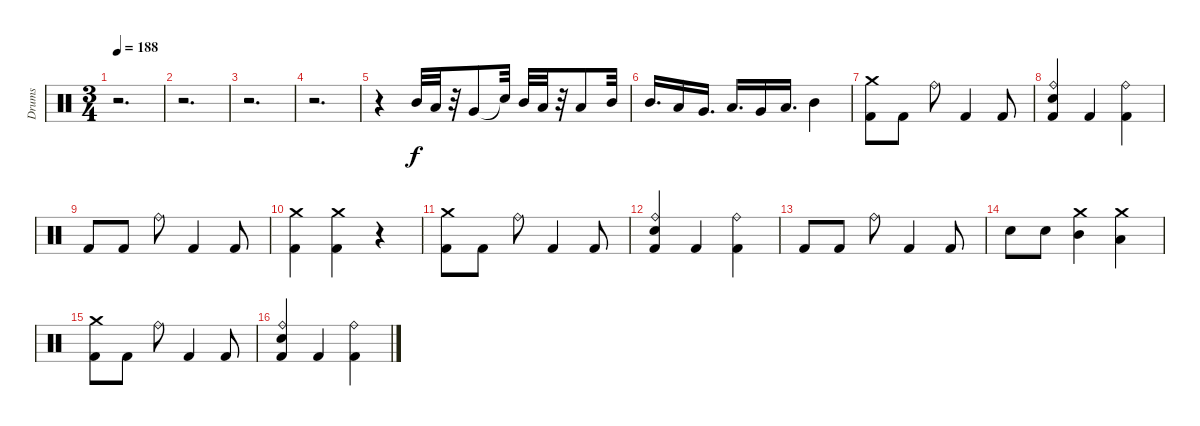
\track ("Drums" "Drums") {instrument percussion}
\staff {score}
\articulation defaults
\ts (3 4)
\tempo 188
\clef neutral
\ks c
r.2{d dy f} |
r.2{d} |
r.2{d} |
r.2{d} |
r.4 "Mid Tom (hit)".32 "Low Tom (hit)".32 r.32 "Very Low Tom (hit)".8 "Snare (hit)"{t}.32 "Mid Tom (hit)".32 "Low Tom (hit)".32 r.32 "Low Floor Tom (hit)".8 "Mid Tom (hit)".32 |
"Mid Tom (hit)".16{d} "Low Tom (hit)".16 "Very Low Tom (hit)".16{d} "Low Floor Tom (hit)".16{d} "Very Low Tom (hit)".16 "Low Tom (hit)".16{d} "Mid Tom (hit)".4 |
("Crash medium (hit)" "Kick (hit) 2").8 "Kick (hit) 2".8 "Ride (bell)".8 "Kick (hit) 2".4 "Kick (hit) 2".8 |
("Electric Snare (hit)" "Ride (bell)" "Kick (hit) 2").4 "Kick (hit) 2".4 ("Ride (bell)" "Kick (hit) 2").4 |
"Kick (hit) 2".8 "Kick (hit) 2".8 "Ride (bell)".8 "Kick (hit) 2".4 "Kick (hit) 2".8 |
("Crash medium (hit)" "Kick (hit) 2").4 ("Crash medium (hit)" "Kick (hit) 2").4 r.4 |
("Crash medium (hit)" "Kick (hit) 2").8 "Kick (hit) 2".8 "Ride (bell)".8 "Kick (hit) 2".4 "Kick (hit) 2".8 |
("Electric Snare (hit)" "Ride (bell)" "Kick (hit) 2").4 "Kick (hit) 2".4 ("Ride (bell)" "Kick (hit) 2").4 |
"Kick (hit) 2".8 "Kick (hit) 2".8 "Ride (bell)".8 "Kick (hit) 2".4 "Kick (hit) 2".8 |
"Electric Snare (hit)".8 "Electric Snare (hit)".8 ("Crash medium (hit)" "Mid Tom (hit)").4 ("Crash medium (hit)" "Low Tom (hit)").4 |
("Crash medium (hit)" "Kick (hit) 2").8 "Kick (hit) 2".8 "Ride (bell)".8 "Kick (hit) 2".4 "Kick (hit) 2".8 |
("Electric Snare (hit)" "Ride (bell)" "Kick (hit) 2").4 "Kick (hit) 2".4 ("Ride (bell)" "Kick (hit) 2").4
